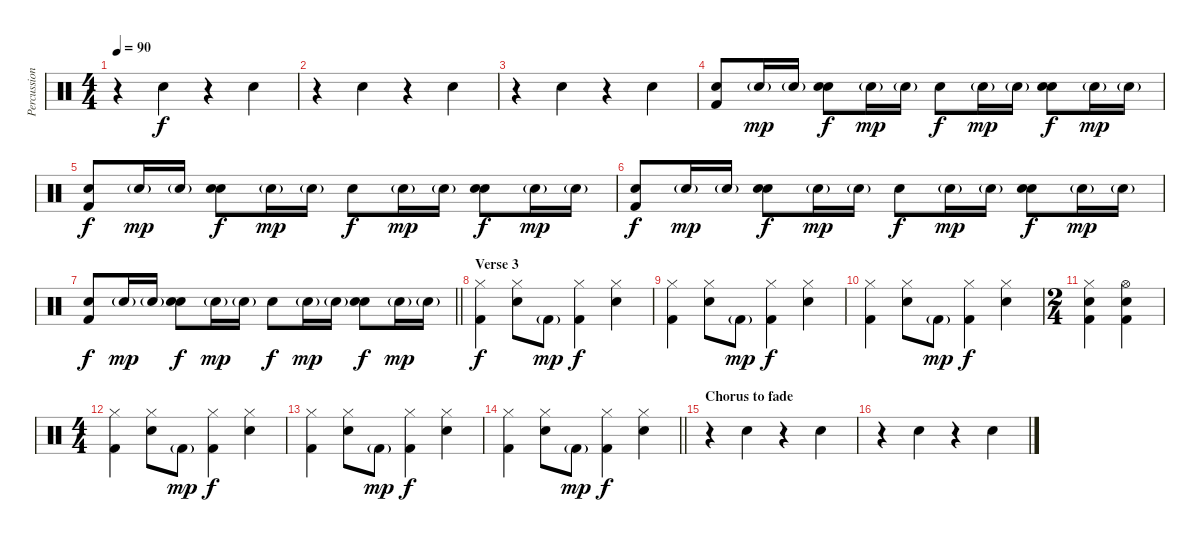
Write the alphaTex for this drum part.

\track ("Percussion" "Percussion") {instrument percussion}
\staff {score}
\articulation defaults
\ts (4 4)
\tempo 90
\clef neutral
\ks c
r.4{dy f} "Hand Clap (hit)".4 r.4 "Hand Clap (hit)".4 |
r.4 "Hand Clap (hit)".4 r.4 "Hand Clap (hit)".4 |
r.4 "Hand Clap (hit)".4 r.4 "Hand Clap (hit)".4 |
("Snare (hit) 2" "Kick (hit) 2").8 "Snare (hit) 2"{g}.16{dy mp} "Snare (hit) 2"{g}.16 ("Hand Clap (hit)" "Snare (hit) 2").8{dy f} "Snare (hit) 2"{g}.16{dy mp} "Snare (hit) 2"{g}.16 "Snare (hit) 2".8{dy f} "Snare (hit) 2"{g}.16{dy mp} "Snare (hit) 2"{g}.16 ("Hand Clap (hit)" "Snare (hit) 2").8{dy f} "Snare (hit) 2"{g}.16{dy mp} "Snare (hit) 2"{g}.16 |
("Snare (hit) 2" "Kick (hit) 2").8{dy f} "Snare (hit) 2"{g}.16{dy mp} "Snare (hit) 2"{g}.16 ("Hand Clap (hit)" "Snare (hit) 2").8{dy f} "Snare (hit) 2"{g}.16{dy mp} "Snare (hit) 2"{g}.16 "Snare (hit) 2".8{dy f} "Snare (hit) 2"{g}.16{dy mp} "Snare (hit) 2"{g}.16 ("Hand Clap (hit)" "Snare (hit) 2").8{dy f} "Snare (hit) 2"{g}.16{dy mp} "Snare (hit) 2"{g}.16 |
("Snare (hit) 2" "Kick (hit) 2").8{dy f} "Snare (hit) 2"{g}.16{dy mp} "Snare (hit) 2"{g}.16 ("Hand Clap (hit)" "Snare (hit) 2").8{dy f} "Snare (hit) 2"{g}.16{dy mp} "Snare (hit) 2"{g}.16 "Snare (hit) 2".8{dy f} "Snare (hit) 2"{g}.16{dy mp} "Snare (hit) 2"{g}.16 ("Hand Clap (hit)" "Snare (hit) 2").8{dy f} "Snare (hit) 2"{g}.16{dy mp} "Snare (hit) 2"{g}.16 |
\barLineRight lightlight
("Snare (hit) 2" "Kick (hit) 2").8{dy f} "Snare (hit) 2"{g}.16{dy mp} "Snare (hit) 2"{g}.16 ("Hand Clap (hit)" "Snare (hit) 2").8{dy f} "Snare (hit) 2"{g}.16{dy mp} "Snare (hit) 2"{g}.16 "Snare (hit) 2".8{dy f} "Snare (hit) 2"{g}.16{dy mp} "Snare (hit) 2"{g}.16 ("Hand Clap (hit)" "Snare (hit) 2").8{dy f} "Snare (hit) 2"{g}.16{dy mp} "Snare (hit) 2"{g}.16 |
\section ("" "Verse 3")
("Hi-Hat (closed)" "Kick (hit) 2").4{dy f} ("Hi-Hat (closed)" "Snare (hit) 2").8 "Kick (hit) 2"{g}.8{dy mp} ("Hi-Hat (closed)" "Kick (hit) 2").4{dy f} ("Hi-Hat (closed)" "Snare (hit) 2").4 |
("Hi-Hat (closed)" "Kick (hit) 2").4 ("Hi-Hat (closed)" "Snare (hit) 2").8 "Kick (hit) 2"{g}.8{dy mp} ("Hi-Hat (closed)" "Kick (hit) 2").4{dy f} ("Hi-Hat (closed)" "Snare (hit) 2").4 |
("Hi-Hat (closed)" "Kick (hit) 2").4 ("Hi-Hat (closed)" "Snare (hit) 2").8 "Kick (hit) 2"{g}.8{dy mp} ("Hi-Hat (closed)" "Kick (hit) 2").4{dy f} ("Hi-Hat (closed)" "Snare (hit) 2").4 |
\ts (2 4)
("Hi-Hat (closed)" "Snare (hit) 2" "Kick (hit) 2").4 ("Hi-Hat (open)" "Snare (hit) 2" "Kick (hit) 2").4 |
\ts (4 4)
("Hi-Hat (closed)" "Kick (hit) 2").4 ("Hi-Hat (closed)" "Snare (hit) 2").8 "Kick (hit) 2"{g}.8{dy mp} ("Hi-Hat (closed)" "Kick (hit) 2").4{dy f} ("Hi-Hat (closed)" "Snare (hit) 2").4 |
("Hi-Hat (closed)" "Kick (hit) 2").4 ("Hi-Hat (closed)" "Snare (hit) 2").8 "Kick (hit) 2"{g}.8{dy mp} ("Hi-Hat (closed)" "Kick (hit) 2").4{dy f} ("Hi-Hat (closed)" "Snare (hit) 2").4 |
\barLineRight lightlight
("Hi-Hat (closed)" "Kick (hit) 2").4 ("Hi-Hat (closed)" "Snare (hit) 2").8 "Kick (hit) 2"{g}.8{dy mp} ("Hi-Hat (closed)" "Kick (hit) 2").4{dy f} ("Hi-Hat (closed)" "Snare (hit) 2").4 |
\section ("" "Chorus to fade")
r.4 "Hand Clap (hit)".4 r.4 "Hand Clap (hit)".4 |
r.4 "Hand Clap (hit)".4 r.4 "Hand Clap (hit)".4
